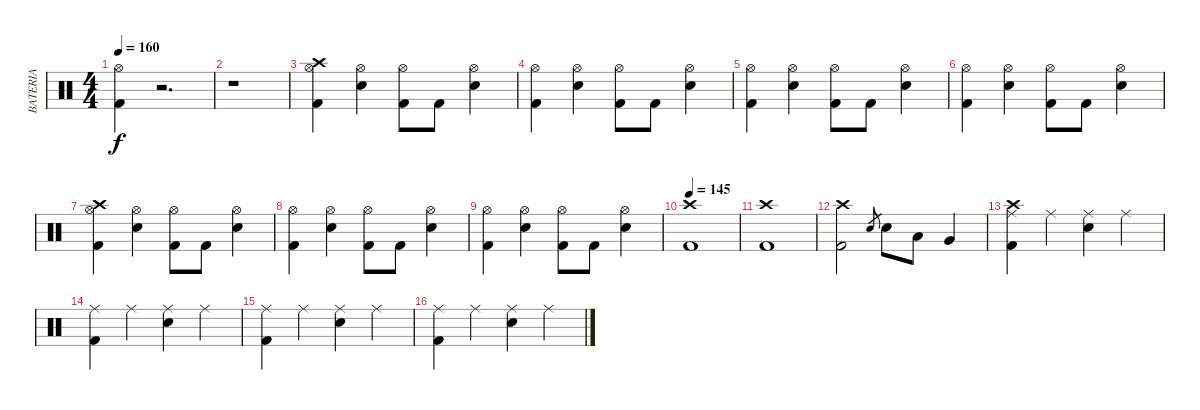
\track ("BATERIA" "BATERIA") {instrument percussion}
\staff {score}
\articulation defaults
\ts (4 4)
\tempo 160
\clef neutral
\ks c
("Hi-Hat (open)" "Kick (hit) 2").4{dy f} r.2{d} |
r.1 |
("Crash high (hit)" "Hi-Hat (open)" "Kick (hit) 2").4 ("Hi-Hat (open)" "Snare (hit) 2").4 ("Hi-Hat (open)" "Kick (hit) 2").8 "Kick (hit) 2".8 ("Hi-Hat (open)" "Snare (hit) 2").4 |
("Hi-Hat (open)" "Kick (hit) 2").4 ("Hi-Hat (open)" "Snare (hit) 2").4 ("Hi-Hat (open)" "Kick (hit) 2").8 "Kick (hit) 2".8 ("Hi-Hat (open)" "Snare (hit) 2").4 |
("Hi-Hat (open)" "Kick (hit) 2").4 ("Hi-Hat (open)" "Snare (hit) 2").4 ("Hi-Hat (open)" "Kick (hit) 2").8 "Kick (hit) 2".8 ("Hi-Hat (open)" "Snare (hit) 2").4 |
("Hi-Hat (open)" "Kick (hit) 2").4 ("Hi-Hat (open)" "Snare (hit) 2").4 ("Hi-Hat (open)" "Kick (hit) 2").8 "Kick (hit) 2".8 ("Hi-Hat (open)" "Snare (hit) 2").4 |
("Crash high (hit)" "Hi-Hat (open)" "Kick (hit) 2").4 ("Hi-Hat (open)" "Snare (hit) 2").4 ("Hi-Hat (open)" "Kick (hit) 2").8 "Kick (hit) 2".8 ("Hi-Hat (open)" "Snare (hit) 2").4 |
("Hi-Hat (open)" "Kick (hit) 2").4 ("Hi-Hat (open)" "Snare (hit) 2").4 ("Hi-Hat (open)" "Kick (hit) 2").8 "Kick (hit) 2".8 ("Hi-Hat (open)" "Snare (hit) 2").4 |
("Hi-Hat (open)" "Kick (hit) 2").4 ("Hi-Hat (open)" "Snare (hit) 2").4 ("Hi-Hat (open)" "Kick (hit) 2").8 "Kick (hit) 2".8 ("Hi-Hat (open)" "Snare (hit) 2").4 |
\tempo 145
("Crash high (hit)" "Kick (hit) 2").1 |
("Crash high (hit)" "Kick (hit) 2").1 |
("Crash high (hit)" "Kick (hit) 2").2 "Snare (hit) 2".8{gr} "Snare (hit) 2".8 "Low Tom (hit)".8 "Very Low Tom (hit)".4 |
("Crash high (hit)" "Ride (middle)" "Kick (hit) 2").4 "Ride (middle)".4 ("Ride (middle)" "Snare (hit) 2").4 "Ride (middle)".4 |
("Ride (middle)" "Kick (hit) 2").4 "Ride (middle)".4 ("Ride (middle)" "Snare (hit) 2").4 "Ride (middle)".4 |
("Ride (middle)" "Kick (hit) 2").4 "Ride (middle)".4 ("Ride (middle)" "Snare (hit) 2").4 "Ride (middle)".4 |
("Ride (middle)" "Kick (hit) 2").4 "Ride (middle)".4 ("Ride (middle)" "Snare (hit) 2").4 "Ride (middle)".4
